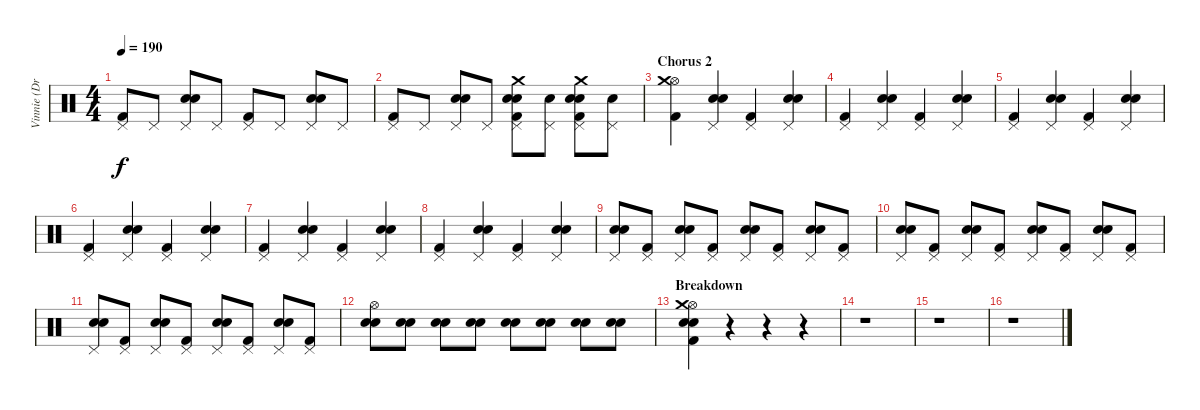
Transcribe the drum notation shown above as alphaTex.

\track ("Vinnie (Drums)" "Vinnie (Dr") {instrument percussion}
\staff {score}
\articulation defaults
\ts (4 4)
\tempo 190
\clef neutral
\ks c
("Kick (hit) 2" "Pedal Hi-Hat (hit)").8{dy f} "Pedal Hi-Hat (hit)".8 ("Snare (hit) 2" "Electric Snare (hit)" "Pedal Hi-Hat (hit)").8 "Pedal Hi-Hat (hit)".8 ("Kick (hit) 2" "Pedal Hi-Hat (hit)").8 "Pedal Hi-Hat (hit)".8 ("Snare (hit) 2" "Electric Snare (hit)" "Pedal Hi-Hat (hit)").8 "Pedal Hi-Hat (hit)".8 |
("Kick (hit) 2" "Pedal Hi-Hat (hit)").8 "Pedal Hi-Hat (hit)".8 ("Snare (hit) 2" "Electric Snare (hit)" "Pedal Hi-Hat (hit)").8 "Pedal Hi-Hat (hit)".8 ("Kick (hit) 2" "Snare (hit) 2" "Electric Snare (hit)" "Pedal Hi-Hat (hit)" "Crash medium (hit)").8 ("Electric Snare (hit)" "Pedal Hi-Hat (hit)").8 ("Kick (hit) 2" "Snare (hit) 2" "Electric Snare (hit)" "Pedal Hi-Hat (hit)" "Crash medium (hit)").8 ("Electric Snare (hit)" "Pedal Hi-Hat (hit)").8 |
\section ("" "Chorus 2")
("Kick (hit) 2" "Hi-Hat (open)" "Crash medium (hit)").4 ("Snare (hit) 2" "Electric Snare (hit)" "Pedal Hi-Hat (hit)").4 ("Kick (hit) 2" "Pedal Hi-Hat (hit)").4 ("Snare (hit) 2" "Electric Snare (hit)" "Pedal Hi-Hat (hit)").4 |
("Kick (hit) 2" "Pedal Hi-Hat (hit)").4 ("Snare (hit) 2" "Electric Snare (hit)" "Pedal Hi-Hat (hit)").4 ("Kick (hit) 2" "Pedal Hi-Hat (hit)").4 ("Snare (hit) 2" "Electric Snare (hit)" "Pedal Hi-Hat (hit)").4 |
("Kick (hit) 2" "Pedal Hi-Hat (hit)").4 ("Snare (hit) 2" "Electric Snare (hit)" "Pedal Hi-Hat (hit)").4 ("Kick (hit) 2" "Pedal Hi-Hat (hit)").4 ("Snare (hit) 2" "Electric Snare (hit)" "Pedal Hi-Hat (hit)").4 |
("Kick (hit) 2" "Pedal Hi-Hat (hit)").4 ("Snare (hit) 2" "Electric Snare (hit)" "Pedal Hi-Hat (hit)").4 ("Kick (hit) 2" "Pedal Hi-Hat (hit)").4 ("Snare (hit) 2" "Electric Snare (hit)" "Pedal Hi-Hat (hit)").4 |
("Kick (hit) 2" "Pedal Hi-Hat (hit)").4 ("Snare (hit) 2" "Electric Snare (hit)" "Pedal Hi-Hat (hit)").4 ("Kick (hit) 2" "Pedal Hi-Hat (hit)").4 ("Snare (hit) 2" "Electric Snare (hit)" "Pedal Hi-Hat (hit)").4 |
("Kick (hit) 2" "Pedal Hi-Hat (hit)").4 ("Snare (hit) 2" "Electric Snare (hit)" "Pedal Hi-Hat (hit)").4 ("Kick (hit) 2" "Pedal Hi-Hat (hit)").4 ("Snare (hit) 2" "Electric Snare (hit)" "Pedal Hi-Hat (hit)").4 |
("Snare (hit) 2" "Electric Snare (hit)" "Pedal Hi-Hat (hit)").8 ("Kick (hit) 2" "Pedal Hi-Hat (hit)").8 ("Snare (hit) 2" "Electric Snare (hit)" "Pedal Hi-Hat (hit)").8 ("Kick (hit) 2" "Pedal Hi-Hat (hit)").8 ("Snare (hit) 2" "Electric Snare (hit)" "Pedal Hi-Hat (hit)").8 ("Kick (hit) 2" "Pedal Hi-Hat (hit)").8 ("Snare (hit) 2" "Electric Snare (hit)" "Pedal Hi-Hat (hit)").8 ("Kick (hit) 2" "Pedal Hi-Hat (hit)").8 |
("Snare (hit) 2" "Electric Snare (hit)" "Pedal Hi-Hat (hit)").8 ("Kick (hit) 2" "Pedal Hi-Hat (hit)").8 ("Snare (hit) 2" "Electric Snare (hit)" "Pedal Hi-Hat (hit)").8 ("Kick (hit) 2" "Pedal Hi-Hat (hit)").8 ("Snare (hit) 2" "Electric Snare (hit)" "Pedal Hi-Hat (hit)").8 ("Kick (hit) 2" "Pedal Hi-Hat (hit)").8 ("Snare (hit) 2" "Electric Snare (hit)" "Pedal Hi-Hat (hit)").8 ("Kick (hit) 2" "Pedal Hi-Hat (hit)").8 |
("Snare (hit) 2" "Electric Snare (hit)" "Pedal Hi-Hat (hit)").8 ("Kick (hit) 2" "Pedal Hi-Hat (hit)").8 ("Snare (hit) 2" "Electric Snare (hit)" "Pedal Hi-Hat (hit)").8 ("Kick (hit) 2" "Pedal Hi-Hat (hit)").8 ("Snare (hit) 2" "Electric Snare (hit)" "Pedal Hi-Hat (hit)").8 ("Kick (hit) 2" "Pedal Hi-Hat (hit)").8 ("Snare (hit) 2" "Electric Snare (hit)" "Pedal Hi-Hat (hit)").8 ("Kick (hit) 2" "Pedal Hi-Hat (hit)").8 |
("Snare (hit) 2" "Electric Snare (hit)" "Hi-Hat (open)").8 ("Snare (hit) 2" "Electric Snare (hit)").8 ("Snare (hit) 2" "Electric Snare (hit)").8 ("Snare (hit) 2" "Electric Snare (hit)").8 ("Snare (hit) 2" "Electric Snare (hit)").8 ("Snare (hit) 2" "Electric Snare (hit)").8 ("Snare (hit) 2" "Electric Snare (hit)").8 ("Snare (hit) 2" "Electric Snare (hit)").8 |
\section ("" "Breakdown")
("Electric Snare (hit)" "Kick (hit) 2" "Snare (hit) 2" "Hi-Hat (open)" "Crash medium (hit)").4 r.4 r.4 r.4 |
r.1 |
r.1 |
r.1
